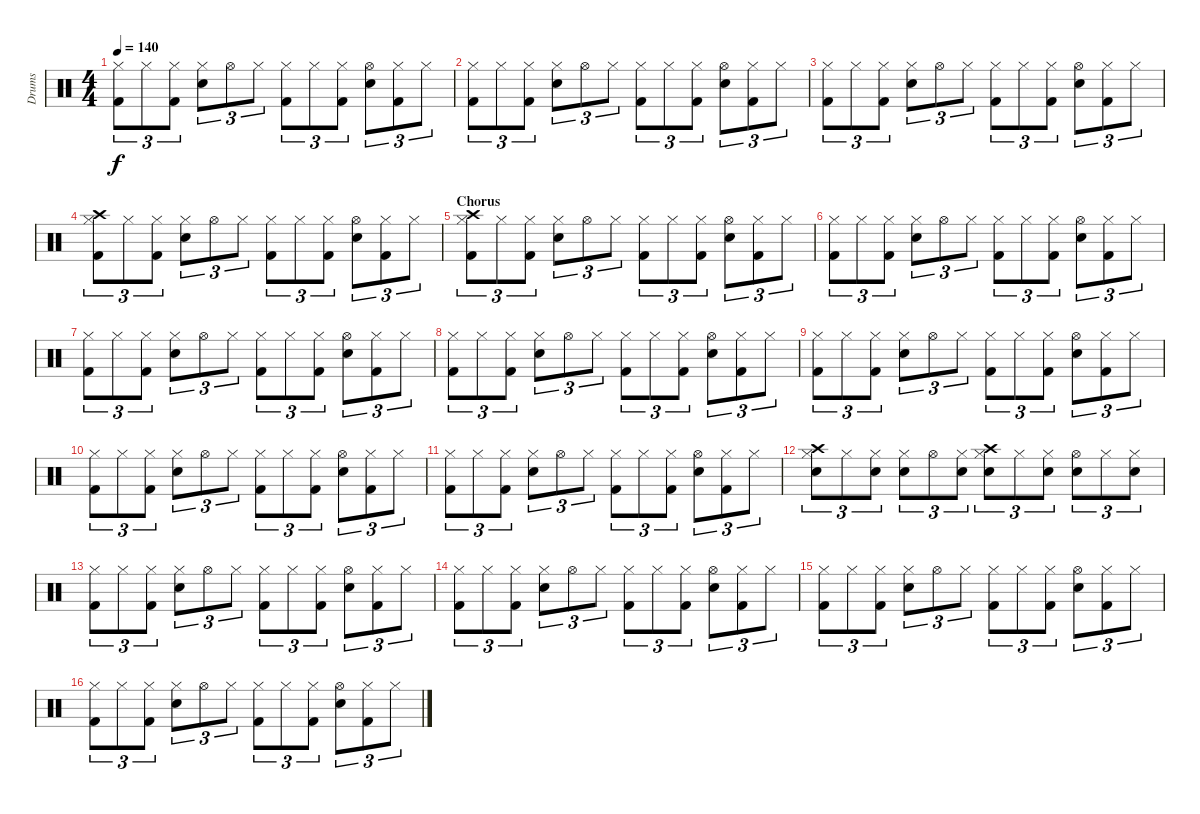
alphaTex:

\track ("Drums" "Drums") {instrument percussion}
\staff {score}
\articulation defaults
\ts (4 4)
\tempo 140
\clef neutral
\ks c
("Kick (hit) 2" "Hi-Hat (closed)").8{tu (3 2) dy f} "Hi-Hat (closed)".8{tu (3 2)} ("Kick (hit) 2" "Hi-Hat (closed)").8{tu (3 2)} ("Snare (hit) 2" "Hi-Hat (closed)").8{tu (3 2)} "Hi-Hat (open)".8{tu (3 2)} "Hi-Hat (closed)".8{tu (3 2)} ("Kick (hit) 2" "Hi-Hat (closed)").8{tu (3 2)} "Hi-Hat (closed)".8{tu (3 2)} ("Kick (hit) 2" "Hi-Hat (closed)").8{tu (3 2)} ("Snare (hit) 2" "Hi-Hat (open)").8{tu (3 2)} ("Kick (hit) 2" "Hi-Hat (closed)").8{tu (3 2)} "Hi-Hat (closed)".8{tu (3 2)} |
("Kick (hit) 2" "Hi-Hat (closed)").8{tu (3 2)} "Hi-Hat (closed)".8{tu (3 2)} ("Kick (hit) 2" "Hi-Hat (closed)").8{tu (3 2)} ("Snare (hit) 2" "Hi-Hat (closed)").8{tu (3 2)} "Hi-Hat (open)".8{tu (3 2)} "Hi-Hat (closed)".8{tu (3 2)} ("Kick (hit) 2" "Hi-Hat (closed)").8{tu (3 2)} "Hi-Hat (closed)".8{tu (3 2)} ("Kick (hit) 2" "Hi-Hat (closed)").8{tu (3 2)} ("Snare (hit) 2" "Hi-Hat (open)").8{tu (3 2)} ("Kick (hit) 2" "Hi-Hat (closed)").8{tu (3 2)} "Hi-Hat (closed)".8{tu (3 2)} |
("Kick (hit) 2" "Hi-Hat (closed)").8{tu (3 2)} "Hi-Hat (closed)".8{tu (3 2)} ("Kick (hit) 2" "Hi-Hat (closed)").8{tu (3 2)} ("Snare (hit) 2" "Hi-Hat (closed)").8{tu (3 2)} "Hi-Hat (open)".8{tu (3 2)} "Hi-Hat (closed)".8{tu (3 2)} ("Kick (hit) 2" "Hi-Hat (closed)").8{tu (3 2)} "Hi-Hat (closed)".8{tu (3 2)} ("Kick (hit) 2" "Hi-Hat (closed)").8{tu (3 2)} ("Snare (hit) 2" "Hi-Hat (open)").8{tu (3 2)} ("Kick (hit) 2" "Hi-Hat (closed)").8{tu (3 2)} "Hi-Hat (closed)".8{tu (3 2)} |
("Kick (hit) 2" "Hi-Hat (closed)" "Crash high (hit)").8{tu (3 2)} "Hi-Hat (closed)".8{tu (3 2)} ("Kick (hit) 2" "Hi-Hat (closed)").8{tu (3 2)} ("Snare (hit) 2" "Hi-Hat (closed)").8{tu (3 2)} "Hi-Hat (open)".8{tu (3 2)} "Hi-Hat (closed)".8{tu (3 2)} ("Kick (hit) 2" "Hi-Hat (closed)").8{tu (3 2)} "Hi-Hat (closed)".8{tu (3 2)} ("Kick (hit) 2" "Hi-Hat (closed)").8{tu (3 2)} ("Snare (hit) 2" "Hi-Hat (open)").8{tu (3 2)} ("Kick (hit) 2" "Hi-Hat (closed)").8{tu (3 2)} "Hi-Hat (closed)".8{tu (3 2)} |
\section ("" "Chorus")
("Kick (hit) 2" "Hi-Hat (closed)" "Crash high (hit)").8{tu (3 2)} "Hi-Hat (closed)".8{tu (3 2)} ("Kick (hit) 2" "Hi-Hat (closed)").8{tu (3 2)} ("Snare (hit) 2" "Hi-Hat (closed)").8{tu (3 2)} "Hi-Hat (open)".8{tu (3 2)} "Hi-Hat (closed)".8{tu (3 2)} ("Kick (hit) 2" "Hi-Hat (closed)").8{tu (3 2)} "Hi-Hat (closed)".8{tu (3 2)} ("Kick (hit) 2" "Hi-Hat (closed)").8{tu (3 2)} ("Snare (hit) 2" "Hi-Hat (open)").8{tu (3 2)} ("Kick (hit) 2" "Hi-Hat (closed)").8{tu (3 2)} "Hi-Hat (closed)".8{tu (3 2)} |
("Kick (hit) 2" "Hi-Hat (closed)").8{tu (3 2)} "Hi-Hat (closed)".8{tu (3 2)} ("Kick (hit) 2" "Hi-Hat (closed)").8{tu (3 2)} ("Snare (hit) 2" "Hi-Hat (closed)").8{tu (3 2)} "Hi-Hat (open)".8{tu (3 2)} "Hi-Hat (closed)".8{tu (3 2)} ("Kick (hit) 2" "Hi-Hat (closed)").8{tu (3 2)} "Hi-Hat (closed)".8{tu (3 2)} ("Kick (hit) 2" "Hi-Hat (closed)").8{tu (3 2)} ("Snare (hit) 2" "Hi-Hat (open)").8{tu (3 2)} ("Kick (hit) 2" "Hi-Hat (closed)").8{tu (3 2)} "Hi-Hat (closed)".8{tu (3 2)} |
("Kick (hit) 2" "Hi-Hat (closed)").8{tu (3 2)} "Hi-Hat (closed)".8{tu (3 2)} ("Kick (hit) 2" "Hi-Hat (closed)").8{tu (3 2)} ("Snare (hit) 2" "Hi-Hat (closed)").8{tu (3 2)} "Hi-Hat (open)".8{tu (3 2)} "Hi-Hat (closed)".8{tu (3 2)} ("Kick (hit) 2" "Hi-Hat (closed)").8{tu (3 2)} "Hi-Hat (closed)".8{tu (3 2)} ("Kick (hit) 2" "Hi-Hat (closed)").8{tu (3 2)} ("Snare (hit) 2" "Hi-Hat (open)").8{tu (3 2)} ("Kick (hit) 2" "Hi-Hat (closed)").8{tu (3 2)} "Hi-Hat (closed)".8{tu (3 2)} |
("Kick (hit) 2" "Hi-Hat (closed)").8{tu (3 2)} "Hi-Hat (closed)".8{tu (3 2)} ("Kick (hit) 2" "Hi-Hat (closed)").8{tu (3 2)} ("Snare (hit) 2" "Hi-Hat (closed)").8{tu (3 2)} "Hi-Hat (open)".8{tu (3 2)} "Hi-Hat (closed)".8{tu (3 2)} ("Kick (hit) 2" "Hi-Hat (closed)").8{tu (3 2)} "Hi-Hat (closed)".8{tu (3 2)} ("Kick (hit) 2" "Hi-Hat (closed)").8{tu (3 2)} ("Snare (hit) 2" "Hi-Hat (open)").8{tu (3 2)} ("Kick (hit) 2" "Hi-Hat (closed)").8{tu (3 2)} "Hi-Hat (closed)".8{tu (3 2)} |
("Kick (hit) 2" "Hi-Hat (closed)").8{tu (3 2)} "Hi-Hat (closed)".8{tu (3 2)} ("Kick (hit) 2" "Hi-Hat (closed)").8{tu (3 2)} ("Snare (hit) 2" "Hi-Hat (closed)").8{tu (3 2)} "Hi-Hat (open)".8{tu (3 2)} "Hi-Hat (closed)".8{tu (3 2)} ("Kick (hit) 2" "Hi-Hat (closed)").8{tu (3 2)} "Hi-Hat (closed)".8{tu (3 2)} ("Kick (hit) 2" "Hi-Hat (closed)").8{tu (3 2)} ("Snare (hit) 2" "Hi-Hat (open)").8{tu (3 2)} ("Kick (hit) 2" "Hi-Hat (closed)").8{tu (3 2)} "Hi-Hat (closed)".8{tu (3 2)} |
("Kick (hit) 2" "Hi-Hat (closed)").8{tu (3 2)} "Hi-Hat (closed)".8{tu (3 2)} ("Kick (hit) 2" "Hi-Hat (closed)").8{tu (3 2)} ("Snare (hit) 2" "Hi-Hat (closed)").8{tu (3 2)} "Hi-Hat (open)".8{tu (3 2)} "Hi-Hat (closed)".8{tu (3 2)} ("Kick (hit) 2" "Hi-Hat (closed)").8{tu (3 2)} "Hi-Hat (closed)".8{tu (3 2)} ("Kick (hit) 2" "Hi-Hat (closed)").8{tu (3 2)} ("Snare (hit) 2" "Hi-Hat (open)").8{tu (3 2)} ("Kick (hit) 2" "Hi-Hat (closed)").8{tu (3 2)} "Hi-Hat (closed)".8{tu (3 2)} |
("Kick (hit) 2" "Hi-Hat (closed)").8{tu (3 2)} "Hi-Hat (closed)".8{tu (3 2)} ("Kick (hit) 2" "Hi-Hat (closed)").8{tu (3 2)} ("Snare (hit) 2" "Hi-Hat (closed)").8{tu (3 2)} "Hi-Hat (open)".8{tu (3 2)} "Hi-Hat (closed)".8{tu (3 2)} ("Kick (hit) 2" "Hi-Hat (closed)").8{tu (3 2)} "Hi-Hat (closed)".8{tu (3 2)} ("Kick (hit) 2" "Hi-Hat (closed)").8{tu (3 2)} ("Snare (hit) 2" "Hi-Hat (open)").8{tu (3 2)} ("Kick (hit) 2" "Hi-Hat (closed)").8{tu (3 2)} "Hi-Hat (closed)".8{tu (3 2)} |
("Snare (hit) 2" "Hi-Hat (closed)" "Crash high (hit)").8{tu (3 2)} "Hi-Hat (closed)".8{tu (3 2)} ("Snare (hit) 2" "Hi-Hat (closed)").8{tu (3 2)} ("Snare (hit) 2" "Hi-Hat (closed)").8{tu (3 2)} "Hi-Hat (open)".8{tu (3 2)} ("Snare (hit) 2" "Hi-Hat (closed)").8{tu (3 2)} ("Snare (hit) 2" "Hi-Hat (closed)" "Crash high (hit)").8{tu (3 2)} "Hi-Hat (closed)".8{tu (3 2)} ("Snare (hit) 2" "Hi-Hat (closed)").8{tu (3 2)} ("Snare (hit) 2" "Hi-Hat (open)").8{tu (3 2)} "Hi-Hat (closed)".8{tu (3 2)} ("Snare (hit) 2" "Hi-Hat (closed)").8{tu (3 2)} |
("Kick (hit) 2" "Hi-Hat (closed)").8{tu (3 2)} "Hi-Hat (closed)".8{tu (3 2)} ("Kick (hit) 2" "Hi-Hat (closed)").8{tu (3 2)} ("Snare (hit) 2" "Hi-Hat (closed)").8{tu (3 2)} "Hi-Hat (open)".8{tu (3 2)} "Hi-Hat (closed)".8{tu (3 2)} ("Kick (hit) 2" "Hi-Hat (closed)").8{tu (3 2)} "Hi-Hat (closed)".8{tu (3 2)} ("Kick (hit) 2" "Hi-Hat (closed)").8{tu (3 2)} ("Snare (hit) 2" "Hi-Hat (open)").8{tu (3 2)} ("Kick (hit) 2" "Hi-Hat (closed)").8{tu (3 2)} "Hi-Hat (closed)".8{tu (3 2)} |
("Kick (hit) 2" "Hi-Hat (closed)").8{tu (3 2)} "Hi-Hat (closed)".8{tu (3 2)} ("Kick (hit) 2" "Hi-Hat (closed)").8{tu (3 2)} ("Snare (hit) 2" "Hi-Hat (closed)").8{tu (3 2)} "Hi-Hat (open)".8{tu (3 2)} "Hi-Hat (closed)".8{tu (3 2)} ("Kick (hit) 2" "Hi-Hat (closed)").8{tu (3 2)} "Hi-Hat (closed)".8{tu (3 2)} ("Kick (hit) 2" "Hi-Hat (closed)").8{tu (3 2)} ("Snare (hit) 2" "Hi-Hat (open)").8{tu (3 2)} ("Kick (hit) 2" "Hi-Hat (closed)").8{tu (3 2)} "Hi-Hat (closed)".8{tu (3 2)} |
("Kick (hit) 2" "Hi-Hat (closed)").8{tu (3 2)} "Hi-Hat (closed)".8{tu (3 2)} ("Kick (hit) 2" "Hi-Hat (closed)").8{tu (3 2)} ("Snare (hit) 2" "Hi-Hat (closed)").8{tu (3 2)} "Hi-Hat (open)".8{tu (3 2)} "Hi-Hat (closed)".8{tu (3 2)} ("Kick (hit) 2" "Hi-Hat (closed)").8{tu (3 2)} "Hi-Hat (closed)".8{tu (3 2)} ("Kick (hit) 2" "Hi-Hat (closed)").8{tu (3 2)} ("Snare (hit) 2" "Hi-Hat (open)").8{tu (3 2)} ("Kick (hit) 2" "Hi-Hat (closed)").8{tu (3 2)} "Hi-Hat (closed)".8{tu (3 2)} |
("Kick (hit) 2" "Hi-Hat (closed)").8{tu (3 2)} "Hi-Hat (closed)".8{tu (3 2)} ("Kick (hit) 2" "Hi-Hat (closed)").8{tu (3 2)} ("Snare (hit) 2" "Hi-Hat (closed)").8{tu (3 2)} "Hi-Hat (open)".8{tu (3 2)} "Hi-Hat (closed)".8{tu (3 2)} ("Kick (hit) 2" "Hi-Hat (closed)").8{tu (3 2)} "Hi-Hat (closed)".8{tu (3 2)} ("Kick (hit) 2" "Hi-Hat (closed)").8{tu (3 2)} ("Snare (hit) 2" "Hi-Hat (open)").8{tu (3 2)} ("Kick (hit) 2" "Hi-Hat (closed)").8{tu (3 2)} "Hi-Hat (closed)".8{tu (3 2)}
